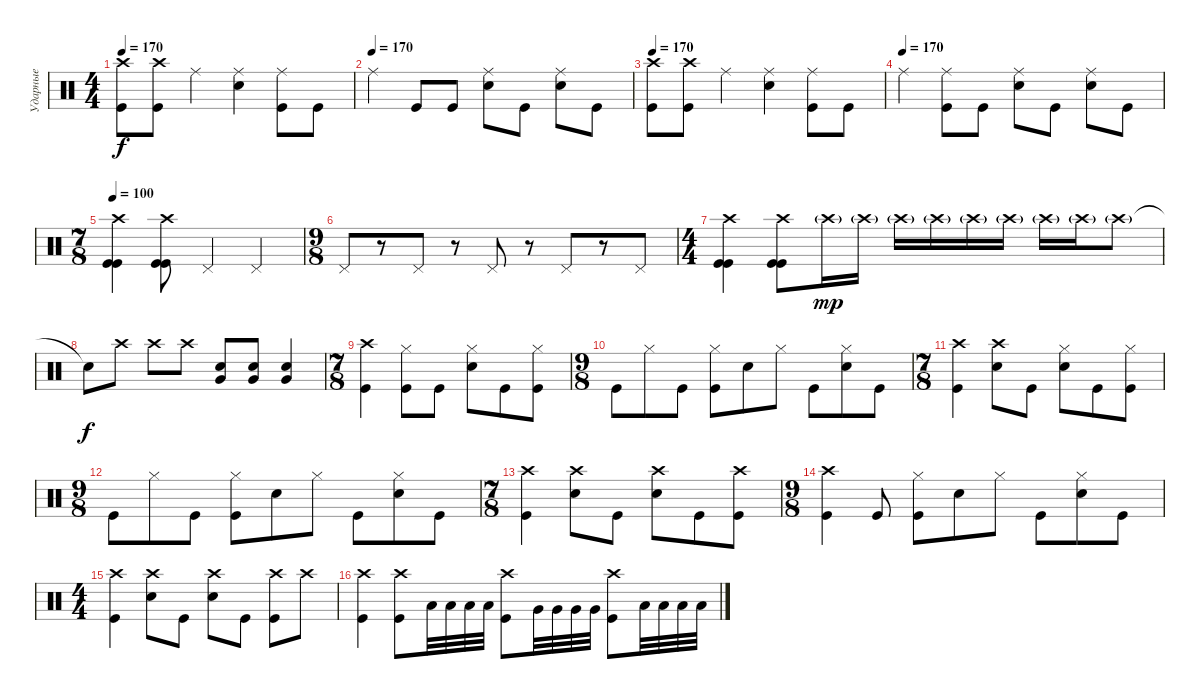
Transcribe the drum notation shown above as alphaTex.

\track ("Ударные" "Ударные") {instrument percussion}
\staff {score}
\articulation defaults
\ts (4 4)
\tempo 170
\clef neutral
\ks c
("Crash high (hit)" "Kick (hit)").8{dy f} ("Crash high (hit)" "Kick (hit)").8 "Ride (middle)".4 ("Ride (middle)" "Electric Snare (hit)").4 ("Ride (middle)" "Kick (hit)").8 "Kick (hit)".8 |
\tempo (170)
"Ride (middle)".4 "Kick (hit)".8 "Kick (hit)".8 ("Ride (middle)" "Electric Snare (hit)").8 "Kick (hit)".8 ("Ride (middle)" "Electric Snare (hit)").8 "Kick (hit)".8 |
\tempo 170
("Crash high (hit)" "Kick (hit)").8 ("Crash high (hit)" "Kick (hit)").8 "Ride (middle)".4 ("Ride (middle)" "Electric Snare (hit)").4 ("Ride (middle)" "Kick (hit)").8 "Kick (hit)".8 |
\tempo (170)
"Ride (middle)".4 ("Ride (middle)" "Kick (hit)").8 "Kick (hit)".8 ("Ride (middle)" "Electric Snare (hit)").8 "Kick (hit)".8 ("Ride (middle)" "Electric Snare (hit)").8 "Kick (hit)".8 |
\ts (7 8)
\tempo 100
("Crash high (hit)" "Kick (hit)" "Kick (hit)").4 ("Crash high (hit)" "Kick (hit)" "Kick (hit)").8 "Pedal Hi-Hat (hit)".4 "Pedal Hi-Hat (hit)".4 |
\ts (9 8)
"Pedal Hi-Hat (hit)".8 r.8 "Pedal Hi-Hat (hit)".8 r.8 "Pedal Hi-Hat (hit)".8 r.8 "Pedal Hi-Hat (hit)".8 r.8 "Pedal Hi-Hat (hit)".8 |
\ts (4 4)
("Crash high (hit)" "Kick (hit)" "Kick (hit)").4 ("Crash high (hit)" "Kick (hit)" "Kick (hit)").8 "Crash high (hit)"{g}.16{dy mp} "Crash high (hit)"{g}.16 "Crash high (hit)"{g}.16 "Crash high (hit)"{g}.16 "Crash high (hit)"{g}.16 "Crash high (hit)"{g}.16 "Crash high (hit)"{g}.16 "Crash high (hit)"{g}.16 "Crash high (hit)"{g}.8 |
"Snare (hit)"{t}.8{dy f} "Crash high (hit)".8 "Crash high (hit)".8 "Crash high (hit)".8 ("Electric Snare (hit)" "Very Low Tom (hit)").8 ("Electric Snare (hit)" "Very Low Tom (hit)").8 ("Electric Snare (hit)" "Very Low Tom (hit)").4 |
\ts (7 8)
("Crash high (hit)" "Kick (hit)").4 ("Hi-Hat (closed)" "Kick (hit)").8 "Kick (hit)".8 ("Hi-Hat (closed)" "Electric Snare (hit)").8 "Kick (hit)".8 ("Hi-Hat (closed)" "Kick (hit)").8 |
\ts (9 8)
"Kick (hit)".8 "Hi-Hat (closed)".8 "Kick (hit)".8 ("Hi-Hat (closed)" "Kick (hit)").8 "Electric Snare (hit)".8 "Hi-Hat (closed)".8 "Kick (hit)".8 ("Hi-Hat (closed)" "Electric Snare (hit)").8 "Kick (hit)".8 |
\ts (7 8)
("Crash high (hit)" "Kick (hit)").4 ("Crash high (hit)" "Electric Snare (hit)").8 "Kick (hit)".8 ("Hi-Hat (closed)" "Electric Snare (hit)").8 "Kick (hit)".8 ("Hi-Hat (closed)" "Kick (hit)").8 |
\ts (9 8)
"Kick (hit)".8 "Hi-Hat (closed)".8 "Kick (hit)".8 ("Hi-Hat (closed)" "Kick (hit)").8 "Electric Snare (hit)".8 "Hi-Hat (closed)".8 "Kick (hit)".8 ("Hi-Hat (closed)" "Electric Snare (hit)").8 "Kick (hit)".8 |
\ts (7 8)
("Crash high (hit)" "Kick (hit)").4 ("Crash high (hit)" "Electric Snare (hit)").8 "Kick (hit)".8 ("Crash high (hit)" "Electric Snare (hit)").8 "Kick (hit)".8 ("Crash high (hit)" "Kick (hit)").8 |
\ts (9 8)
("Crash high (hit)" "Kick (hit)").4 "Kick (hit)".8 ("Hi-Hat (closed)" "Kick (hit)").8 "Electric Snare (hit)".8 "Hi-Hat (closed)".8 "Kick (hit)".8 ("Hi-Hat (closed)" "Electric Snare (hit)").8 "Kick (hit)".8 |
\ts (4 4)
("Crash high (hit)" "Kick (hit)").4 ("Crash high (hit)" "Electric Snare (hit)").8 "Kick (hit)".8 ("Crash high (hit)" "Electric Snare (hit)").8 "Kick (hit)".8 ("Crash high (hit)" "Kick (hit)").8 "Crash high (hit)".8 |
("Crash high (hit)" "Kick (hit)").4 ("Crash high (hit)" "Kick (hit)").8 "Low Tom (hit)".32 "Low Tom (hit)".32 "Low Tom (hit)".32 "Low Tom (hit)".32 ("Crash high (hit)" "Kick (hit)").8 "Very Low Tom (hit)".32 "Very Low Tom (hit)".32 "Very Low Tom (hit)".32 "Very Low Tom (hit)".32 ("Crash high (hit)" "Kick (hit)").8 "Low Floor Tom (hit)".32 "Low Floor Tom (hit)".32 "Low Floor Tom (hit)".32 "Low Floor Tom (hit)".32
